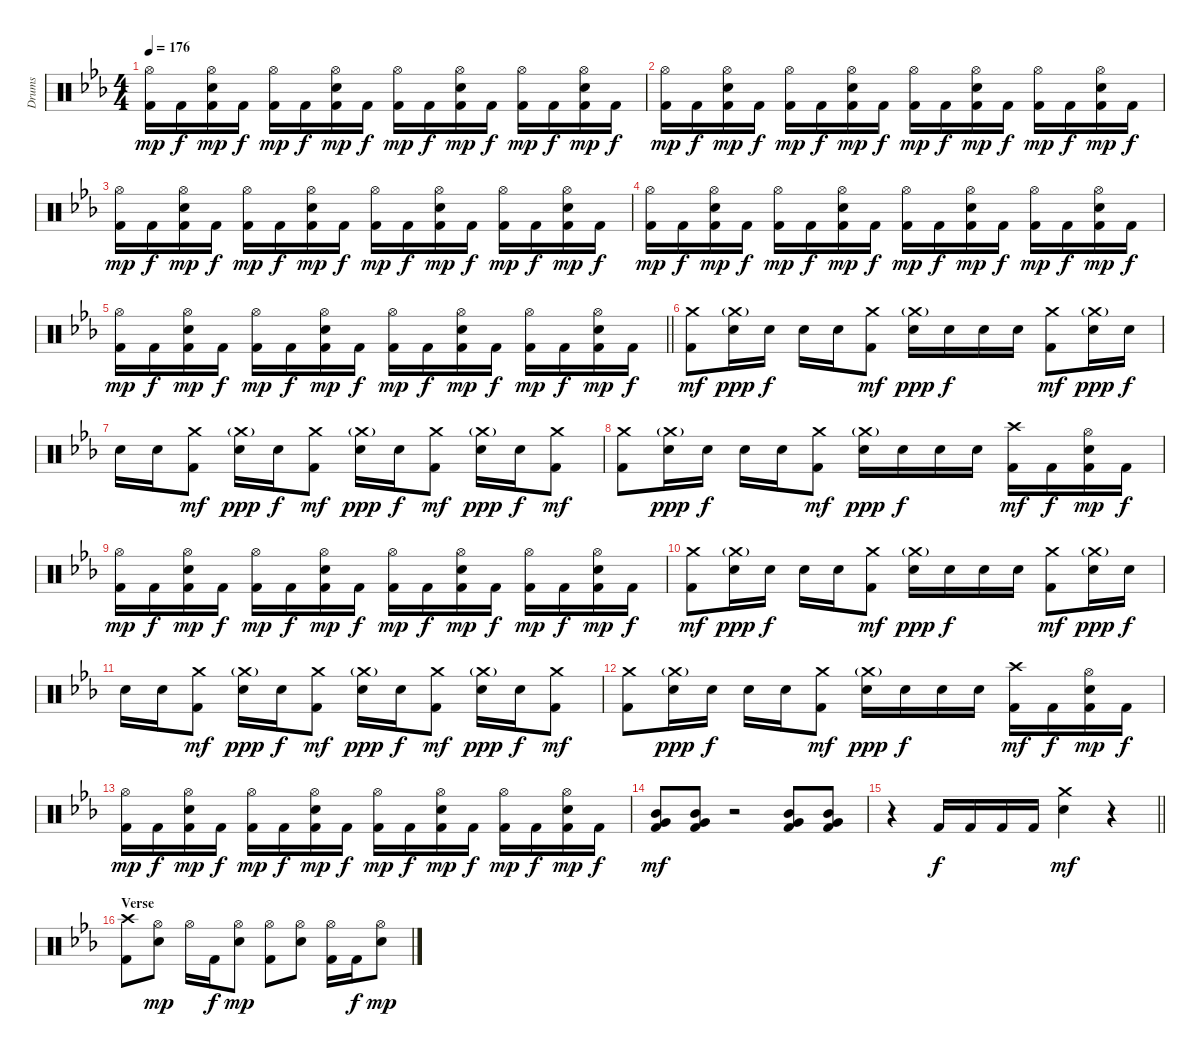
\track ("Drums" "Drums") {instrument percussion}
\staff {score}
\articulation defaults
\ts (4 4)
\tempo 176
\clef neutral
\ks cminor
("Hi-Hat (open)" "Kick (hit) 2").16{dy mp} "Kick (hit) 2".16{dy f} ("Hi-Hat (open)" "Electric Snare (hit)" "Kick (hit) 2").16{dy mp} "Kick (hit) 2".16{dy f} ("Hi-Hat (open)" "Kick (hit) 2").16{dy mp} "Kick (hit) 2".16{dy f} ("Hi-Hat (open)" "Electric Snare (hit)" "Kick (hit) 2").16{dy mp} "Kick (hit) 2".16{dy f} ("Hi-Hat (open)" "Kick (hit) 2").16{dy mp} "Kick (hit) 2".16{dy f} ("Hi-Hat (open)" "Electric Snare (hit)" "Kick (hit) 2").16{dy mp} "Kick (hit) 2".16{dy f} ("Hi-Hat (open)" "Kick (hit) 2").16{dy mp} "Kick (hit) 2".16{dy f} ("Hi-Hat (open)" "Electric Snare (hit)" "Kick (hit) 2").16{dy mp} "Kick (hit) 2".16{dy f} |
("Hi-Hat (open)" "Kick (hit) 2").16{dy mp} "Kick (hit) 2".16{dy f} ("Hi-Hat (open)" "Electric Snare (hit)" "Kick (hit) 2").16{dy mp} "Kick (hit) 2".16{dy f} ("Hi-Hat (open)" "Kick (hit) 2").16{dy mp} "Kick (hit) 2".16{dy f} ("Hi-Hat (open)" "Electric Snare (hit)" "Kick (hit) 2").16{dy mp} "Kick (hit) 2".16{dy f} ("Hi-Hat (open)" "Kick (hit) 2").16{dy mp} "Kick (hit) 2".16{dy f} ("Hi-Hat (open)" "Electric Snare (hit)" "Kick (hit) 2").16{dy mp} "Kick (hit) 2".16{dy f} ("Hi-Hat (open)" "Kick (hit) 2").16{dy mp} "Kick (hit) 2".16{dy f} ("Hi-Hat (open)" "Electric Snare (hit)" "Kick (hit) 2").16{dy mp} "Kick (hit) 2".16{dy f} |
("Hi-Hat (open)" "Kick (hit) 2").16{dy mp} "Kick (hit) 2".16{dy f} ("Hi-Hat (open)" "Electric Snare (hit)" "Kick (hit) 2").16{dy mp} "Kick (hit) 2".16{dy f} ("Hi-Hat (open)" "Kick (hit) 2").16{dy mp} "Kick (hit) 2".16{dy f} ("Hi-Hat (open)" "Electric Snare (hit)" "Kick (hit) 2").16{dy mp} "Kick (hit) 2".16{dy f} ("Hi-Hat (open)" "Kick (hit) 2").16{dy mp} "Kick (hit) 2".16{dy f} ("Hi-Hat (open)" "Electric Snare (hit)" "Kick (hit) 2").16{dy mp} "Kick (hit) 2".16{dy f} ("Hi-Hat (open)" "Kick (hit) 2").16{dy mp} "Kick (hit) 2".16{dy f} ("Hi-Hat (open)" "Electric Snare (hit)" "Kick (hit) 2").16{dy mp} "Kick (hit) 2".16{dy f} |
("Hi-Hat (open)" "Kick (hit) 2").16{dy mp} "Kick (hit) 2".16{dy f} ("Hi-Hat (open)" "Electric Snare (hit)" "Kick (hit) 2").16{dy mp} "Kick (hit) 2".16{dy f} ("Hi-Hat (open)" "Kick (hit) 2").16{dy mp} "Kick (hit) 2".16{dy f} ("Hi-Hat (open)" "Electric Snare (hit)" "Kick (hit) 2").16{dy mp} "Kick (hit) 2".16{dy f} ("Hi-Hat (open)" "Kick (hit) 2").16{dy mp} "Kick (hit) 2".16{dy f} ("Hi-Hat (open)" "Electric Snare (hit)" "Kick (hit) 2").16{dy mp} "Kick (hit) 2".16{dy f} ("Hi-Hat (open)" "Kick (hit) 2").16{dy mp} "Kick (hit) 2".16{dy f} ("Hi-Hat (open)" "Electric Snare (hit)" "Kick (hit) 2").16{dy mp} "Kick (hit) 2".16{dy f} |
\barLineRight lightlight
("Hi-Hat (open)" "Kick (hit) 2").16{dy mp} "Kick (hit) 2".16{dy f} ("Hi-Hat (open)" "Electric Snare (hit)" "Kick (hit) 2").16{dy mp} "Kick (hit) 2".16{dy f} ("Hi-Hat (open)" "Kick (hit) 2").16{dy mp} "Kick (hit) 2".16{dy f} ("Hi-Hat (open)" "Electric Snare (hit)" "Kick (hit) 2").16{dy mp} "Kick (hit) 2".16{dy f} ("Hi-Hat (open)" "Kick (hit) 2").16{dy mp} "Kick (hit) 2".16{dy f} ("Hi-Hat (open)" "Electric Snare (hit)" "Kick (hit) 2").16{dy mp} "Kick (hit) 2".16{dy f} ("Hi-Hat (open)" "Kick (hit) 2").16{dy mp} "Kick (hit) 2".16{dy f} ("Hi-Hat (open)" "Electric Snare (hit)" "Kick (hit) 2").16{dy mp} "Kick (hit) 2".16{dy f} |
\section ("" "")
("Crash medium (hit)" "Kick (hit) 2").8{dy mf} ("Crash medium (hit)"{g} "Electric Snare (hit)").16{dy ppp} "Electric Snare (hit)".16{dy f} "Electric Snare (hit)".16 "Electric Snare (hit)".16 ("Crash medium (hit)" "Kick (hit) 2").8{dy mf} ("Crash medium (hit)"{g} "Electric Snare (hit)").16{dy ppp} "Electric Snare (hit)".16{dy f} "Electric Snare (hit)".16 "Electric Snare (hit)".16 ("Crash medium (hit)" "Kick (hit) 2").8{dy mf} ("Crash medium (hit)"{g} "Electric Snare (hit)").16{dy ppp} "Electric Snare (hit)".16{dy f} |
"Electric Snare (hit)".16 "Electric Snare (hit)".16 ("Crash medium (hit)" "Kick (hit) 2").8{dy mf} ("Crash medium (hit)"{g} "Electric Snare (hit)").16{dy ppp} "Electric Snare (hit)".16{dy f} ("Crash medium (hit)" "Kick (hit) 2").8{dy mf} ("Crash medium (hit)"{g} "Electric Snare (hit)").16{dy ppp} "Electric Snare (hit)".16{dy f} ("Crash medium (hit)" "Kick (hit) 2").8{dy mf} ("Crash medium (hit)"{g} "Electric Snare (hit)").16{dy ppp} "Electric Snare (hit)".16{dy f} ("Crash medium (hit)" "Kick (hit) 2").8{dy mf} |
("Crash medium (hit)" "Kick (hit) 2").8 ("Crash medium (hit)"{g} "Electric Snare (hit)").16{dy ppp} "Electric Snare (hit)".16{dy f} "Electric Snare (hit)".16 "Electric Snare (hit)".16 ("Crash medium (hit)" "Kick (hit) 2").8{dy mf} ("Crash medium (hit)"{g} "Electric Snare (hit)").16{dy ppp} "Electric Snare (hit)".16{dy f} "Electric Snare (hit)".16 "Electric Snare (hit)".16 ("Crash high (hit)" "Kick (hit) 2").16{dy mf} "Kick (hit) 2".16{dy f} ("Hi-Hat (open)" "Electric Snare (hit)" "Kick (hit) 2").16{dy mp} "Kick (hit) 2".16{dy f} |
("Hi-Hat (open)" "Kick (hit) 2").16{dy mp} "Kick (hit) 2".16{dy f} ("Hi-Hat (open)" "Electric Snare (hit)" "Kick (hit) 2").16{dy mp} "Kick (hit) 2".16{dy f} ("Hi-Hat (open)" "Kick (hit) 2").16{dy mp} "Kick (hit) 2".16{dy f} ("Hi-Hat (open)" "Electric Snare (hit)" "Kick (hit) 2").16{dy mp} "Kick (hit) 2".16{dy f} ("Hi-Hat (open)" "Kick (hit) 2").16{dy mp} "Kick (hit) 2".16{dy f} ("Hi-Hat (open)" "Electric Snare (hit)" "Kick (hit) 2").16{dy mp} "Kick (hit) 2".16{dy f} ("Hi-Hat (open)" "Kick (hit) 2").16{dy mp} "Kick (hit) 2".16{dy f} ("Hi-Hat (open)" "Electric Snare (hit)" "Kick (hit) 2").16{dy mp} "Kick (hit) 2".16{dy f} |
("Crash medium (hit)" "Kick (hit) 2").8{dy mf} ("Crash medium (hit)"{g} "Electric Snare (hit)").16{dy ppp} "Electric Snare (hit)".16{dy f} "Electric Snare (hit)".16 "Electric Snare (hit)".16 ("Crash medium (hit)" "Kick (hit) 2").8{dy mf} ("Crash medium (hit)"{g} "Electric Snare (hit)").16{dy ppp} "Electric Snare (hit)".16{dy f} "Electric Snare (hit)".16 "Electric Snare (hit)".16 ("Crash medium (hit)" "Kick (hit) 2").8{dy mf} ("Crash medium (hit)"{g} "Electric Snare (hit)").16{dy ppp} "Electric Snare (hit)".16{dy f} |
"Electric Snare (hit)".16 "Electric Snare (hit)".16 ("Crash medium (hit)" "Kick (hit) 2").8{dy mf} ("Crash medium (hit)"{g} "Electric Snare (hit)").16{dy ppp} "Electric Snare (hit)".16{dy f} ("Crash medium (hit)" "Kick (hit) 2").8{dy mf} ("Crash medium (hit)"{g} "Electric Snare (hit)").16{dy ppp} "Electric Snare (hit)".16{dy f} ("Crash medium (hit)" "Kick (hit) 2").8{dy mf} ("Crash medium (hit)"{g} "Electric Snare (hit)").16{dy ppp} "Electric Snare (hit)".16{dy f} ("Crash medium (hit)" "Kick (hit) 2").8{dy mf} |
("Crash medium (hit)" "Kick (hit) 2").8 ("Crash medium (hit)"{g} "Electric Snare (hit)").16{dy ppp} "Electric Snare (hit)".16{dy f} "Electric Snare (hit)".16 "Electric Snare (hit)".16 ("Crash medium (hit)" "Kick (hit) 2").8{dy mf} ("Crash medium (hit)"{g} "Electric Snare (hit)").16{dy ppp} "Electric Snare (hit)".16{dy f} "Electric Snare (hit)".16 "Electric Snare (hit)".16 ("Crash high (hit)" "Kick (hit) 2").16{dy mf} "Kick (hit) 2".16{dy f} ("Hi-Hat (open)" "Electric Snare (hit)" "Kick (hit) 2").16{dy mp} "Kick (hit) 2".16{dy f} |
("Hi-Hat (open)" "Kick (hit) 2").16{dy mp} "Kick (hit) 2".16{dy f} ("Hi-Hat (open)" "Electric Snare (hit)" "Kick (hit) 2").16{dy mp} "Kick (hit) 2".16{dy f} ("Hi-Hat (open)" "Kick (hit) 2").16{dy mp} "Kick (hit) 2".16{dy f} ("Hi-Hat (open)" "Electric Snare (hit)" "Kick (hit) 2").16{dy mp} "Kick (hit) 2".16{dy f} ("Hi-Hat (open)" "Kick (hit) 2").16{dy mp} "Kick (hit) 2".16{dy f} ("Hi-Hat (open)" "Electric Snare (hit)" "Kick (hit) 2").16{dy mp} "Kick (hit) 2".16{dy f} ("Hi-Hat (open)" "Kick (hit) 2").16{dy mp} "Kick (hit) 2".16{dy f} ("Hi-Hat (open)" "Electric Snare (hit)" "Kick (hit) 2").16{dy mp} "Kick (hit) 2".16{dy f} |
("Mid Tom (hit)" "Very Low Tom (hit)" "Kick (hit) 2").8{dy mf} ("Mid Tom (hit)" "Very Low Tom (hit)" "Kick (hit) 2").8 r.2 ("Mid Tom (hit)" "Very Low Tom (hit)" "Kick (hit) 2").8 ("Mid Tom (hit)" "Very Low Tom (hit)" "Kick (hit) 2").8 |
\barLineRight lightlight
r.4 "Kick (hit) 2".16{dy f} "Kick (hit) 2".16 "Kick (hit) 2".16 "Kick (hit) 2".16 ("Crash medium (hit)" "Electric Snare (hit)").4{dy mf} r.4 |
\section ("" "Verse")
("Crash high (hit)" "Kick (hit) 2").8 ("Hi-Hat (open)" "Electric Snare (hit)").8{dy mp} "Hi-Hat (open)".16 "Kick (hit) 2".16{dy f} ("Hi-Hat (open)" "Electric Snare (hit)").8{dy mp} ("Hi-Hat (open)" "Kick (hit) 2").8 ("Hi-Hat (open)" "Electric Snare (hit)").8 ("Hi-Hat (open)" "Kick (hit) 2").16 "Kick (hit) 2".16{dy f} ("Hi-Hat (open)" "Electric Snare (hit)").8{dy mp}
